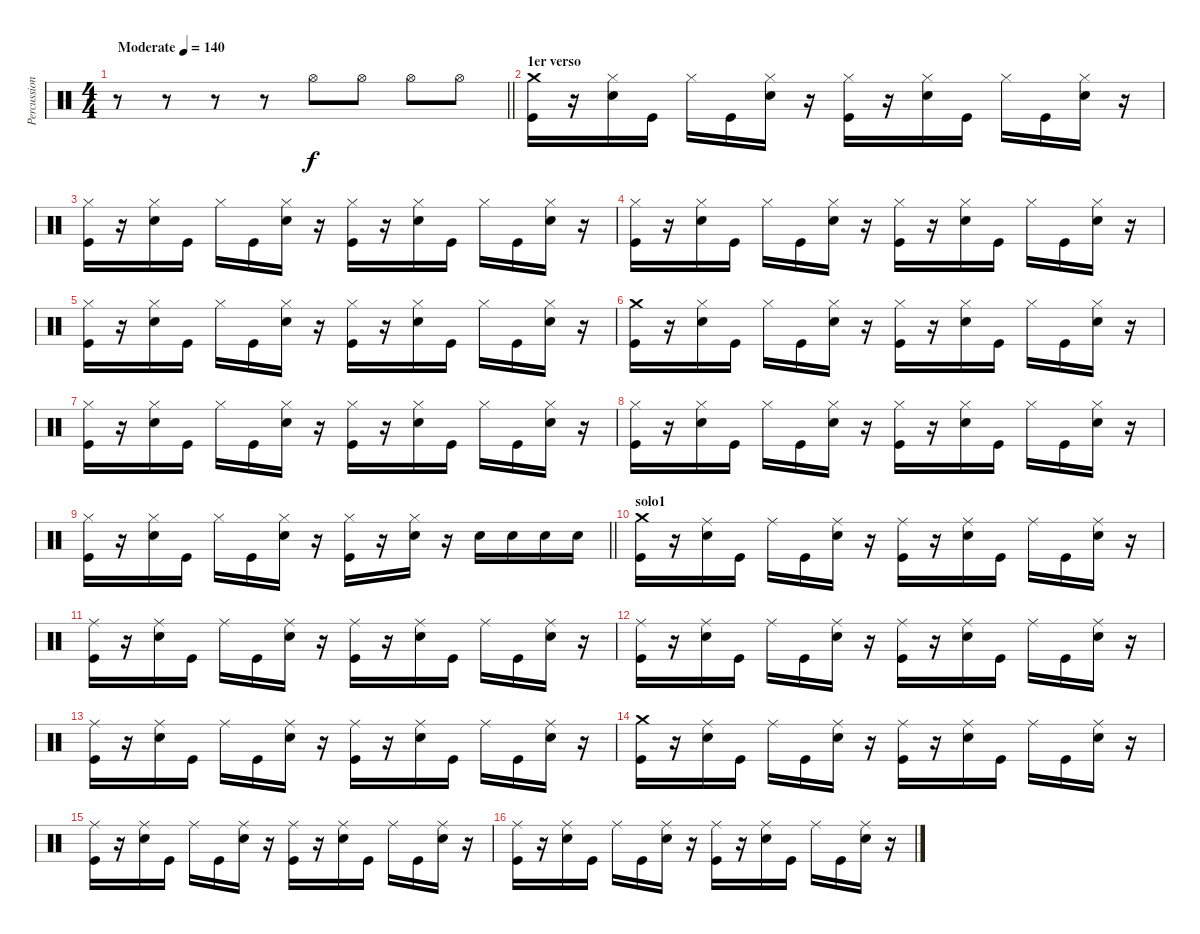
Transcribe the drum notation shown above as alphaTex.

\track ("Percussion" "Percussion") {instrument percussion}
\staff {score}
\articulation defaults
\ts (4 4)
\tempo (140 "Moderate")
\clef neutral
\barLineRight lightlight
\ks c
r.8{dy f} r.8 r.8 r.8 "Hi-Hat (open)".8 "Hi-Hat (open)".8 "Hi-Hat (open)".8 "Hi-Hat (open)".8 |
\section ("" "1er verso")
("Crash medium (hit)" "Kick (hit)").16 r.16 ("Hi-Hat (closed)" "Snare (hit) 2").16 "Kick (hit)".16 "Hi-Hat (closed)".16 "Kick (hit)".16 ("Hi-Hat (closed)" "Snare (hit) 2").16 r.16 ("Hi-Hat (closed)" "Kick (hit)").16 r.16 ("Hi-Hat (closed)" "Snare (hit) 2").16 "Kick (hit)".16 "Hi-Hat (closed)".16 "Kick (hit)".16 ("Hi-Hat (closed)" "Snare (hit) 2").16 r.16 |
("Hi-Hat (closed)" "Kick (hit)").16 r.16 ("Hi-Hat (closed)" "Snare (hit) 2").16 "Kick (hit)".16 "Hi-Hat (closed)".16 "Kick (hit)".16 ("Hi-Hat (closed)" "Snare (hit) 2").16 r.16 ("Hi-Hat (closed)" "Kick (hit)").16 r.16 ("Hi-Hat (closed)" "Snare (hit) 2").16 "Kick (hit)".16 "Hi-Hat (closed)".16 "Kick (hit)".16 ("Hi-Hat (closed)" "Snare (hit) 2").16 r.16 |
("Hi-Hat (closed)" "Kick (hit)").16 r.16 ("Hi-Hat (closed)" "Snare (hit) 2").16 "Kick (hit)".16 "Hi-Hat (closed)".16 "Kick (hit)".16 ("Hi-Hat (closed)" "Snare (hit) 2").16 r.16 ("Hi-Hat (closed)" "Kick (hit)").16 r.16 ("Hi-Hat (closed)" "Snare (hit) 2").16 "Kick (hit)".16 "Hi-Hat (closed)".16 "Kick (hit)".16 ("Hi-Hat (closed)" "Snare (hit) 2").16 r.16 |
("Hi-Hat (closed)" "Kick (hit)").16 r.16 ("Hi-Hat (closed)" "Snare (hit) 2").16 "Kick (hit)".16 "Hi-Hat (closed)".16 "Kick (hit)".16 ("Hi-Hat (closed)" "Snare (hit) 2").16 r.16 ("Hi-Hat (closed)" "Kick (hit)").16 r.16 ("Hi-Hat (closed)" "Snare (hit) 2").16 "Kick (hit)".16 "Hi-Hat (closed)".16 "Kick (hit)".16 ("Hi-Hat (closed)" "Snare (hit) 2").16 r.16 |
("Crash medium (hit)" "Kick (hit)").16 r.16 ("Hi-Hat (closed)" "Snare (hit) 2").16 "Kick (hit)".16 "Hi-Hat (closed)".16 "Kick (hit)".16 ("Hi-Hat (closed)" "Snare (hit) 2").16 r.16 ("Hi-Hat (closed)" "Kick (hit)").16 r.16 ("Hi-Hat (closed)" "Snare (hit) 2").16 "Kick (hit)".16 "Hi-Hat (closed)".16 "Kick (hit)".16 ("Hi-Hat (closed)" "Snare (hit) 2").16 r.16 |
("Hi-Hat (closed)" "Kick (hit)").16 r.16 ("Hi-Hat (closed)" "Snare (hit) 2").16 "Kick (hit)".16 "Hi-Hat (closed)".16 "Kick (hit)".16 ("Hi-Hat (closed)" "Snare (hit) 2").16 r.16 ("Hi-Hat (closed)" "Kick (hit)").16 r.16 ("Hi-Hat (closed)" "Snare (hit) 2").16 "Kick (hit)".16 "Hi-Hat (closed)".16 "Kick (hit)".16 ("Hi-Hat (closed)" "Snare (hit) 2").16 r.16 |
("Hi-Hat (closed)" "Kick (hit)").16 r.16 ("Hi-Hat (closed)" "Snare (hit) 2").16 "Kick (hit)".16 "Hi-Hat (closed)".16 "Kick (hit)".16 ("Hi-Hat (closed)" "Snare (hit) 2").16 r.16 ("Hi-Hat (closed)" "Kick (hit)").16 r.16 ("Hi-Hat (closed)" "Snare (hit) 2").16 "Kick (hit)".16 "Hi-Hat (closed)".16 "Kick (hit)".16 ("Hi-Hat (closed)" "Snare (hit) 2").16 r.16 |
\barLineRight lightlight
("Hi-Hat (closed)" "Kick (hit)").16 r.16 ("Hi-Hat (closed)" "Snare (hit) 2").16 "Kick (hit)".16 "Hi-Hat (closed)".16 "Kick (hit)".16 ("Hi-Hat (closed)" "Snare (hit) 2").16 r.16 ("Hi-Hat (closed)" "Kick (hit)").16 r.16 ("Hi-Hat (closed)" "Snare (hit) 2").16 r.16 "Snare (hit) 2".16 "Snare (hit) 2".16 "Snare (hit) 2".16 "Snare (hit) 2".16 |
\section ("" "solo1")
("Crash medium (hit)" "Kick (hit)").16 r.16 ("Ride (middle)" "Snare (hit) 2").16 "Kick (hit)".16 "Ride (middle)".16 "Kick (hit)".16 ("Ride (middle)" "Snare (hit) 2").16 r.16 ("Ride (middle)" "Kick (hit)").16 r.16 ("Ride (middle)" "Snare (hit) 2").16 "Kick (hit)".16 "Ride (middle)".16 "Kick (hit)".16 ("Ride (middle)" "Snare (hit) 2").16 r.16 |
("Ride (middle)" "Kick (hit)").16 r.16 ("Ride (middle)" "Snare (hit) 2").16 "Kick (hit)".16 "Ride (middle)".16 "Kick (hit)".16 ("Ride (middle)" "Snare (hit) 2").16 r.16 ("Ride (middle)" "Kick (hit)").16 r.16 ("Ride (middle)" "Snare (hit) 2").16 "Kick (hit)".16 "Ride (middle)".16 "Kick (hit)".16 ("Ride (middle)" "Snare (hit) 2").16 r.16 |
("Ride (middle)" "Kick (hit)").16 r.16 ("Ride (middle)" "Snare (hit) 2").16 "Kick (hit)".16 "Ride (middle)".16 "Kick (hit)".16 ("Ride (middle)" "Snare (hit) 2").16 r.16 ("Ride (middle)" "Kick (hit)").16 r.16 ("Ride (middle)" "Snare (hit) 2").16 "Kick (hit)".16 "Ride (middle)".16 "Kick (hit)".16 ("Ride (middle)" "Snare (hit) 2").16 r.16 |
("Ride (middle)" "Kick (hit)").16 r.16 ("Ride (middle)" "Snare (hit) 2").16 "Kick (hit)".16 "Ride (middle)".16 "Kick (hit)".16 ("Ride (middle)" "Snare (hit) 2").16 r.16 ("Ride (middle)" "Kick (hit)").16 r.16 ("Ride (middle)" "Snare (hit) 2").16 "Kick (hit)".16 "Ride (middle)".16 "Kick (hit)".16 ("Ride (middle)" "Snare (hit) 2").16 r.16 |
("Crash medium (hit)" "Kick (hit)").16 r.16 ("Ride (middle)" "Snare (hit) 2").16 "Kick (hit)".16 "Ride (middle)".16 "Kick (hit)".16 ("Ride (middle)" "Snare (hit) 2").16 r.16 ("Ride (middle)" "Kick (hit)").16 r.16 ("Ride (middle)" "Snare (hit) 2").16 "Kick (hit)".16 "Ride (middle)".16 "Kick (hit)".16 ("Ride (middle)" "Snare (hit) 2").16 r.16 |
("Ride (middle)" "Kick (hit)").16 r.16 ("Ride (middle)" "Snare (hit) 2").16 "Kick (hit)".16 "Ride (middle)".16 "Kick (hit)".16 ("Ride (middle)" "Snare (hit) 2").16 r.16 ("Ride (middle)" "Kick (hit)").16 r.16 ("Ride (middle)" "Snare (hit) 2").16 "Kick (hit)".16 "Ride (middle)".16 "Kick (hit)".16 ("Ride (middle)" "Snare (hit) 2").16 r.16 |
("Ride (middle)" "Kick (hit)").16 r.16 ("Ride (middle)" "Snare (hit) 2").16 "Kick (hit)".16 "Ride (middle)".16 "Kick (hit)".16 ("Ride (middle)" "Snare (hit) 2").16 r.16 ("Ride (middle)" "Kick (hit)").16 r.16 ("Ride (middle)" "Snare (hit) 2").16 "Kick (hit)".16 "Ride (middle)".16 "Kick (hit)".16 ("Ride (middle)" "Snare (hit) 2").16 r.16
